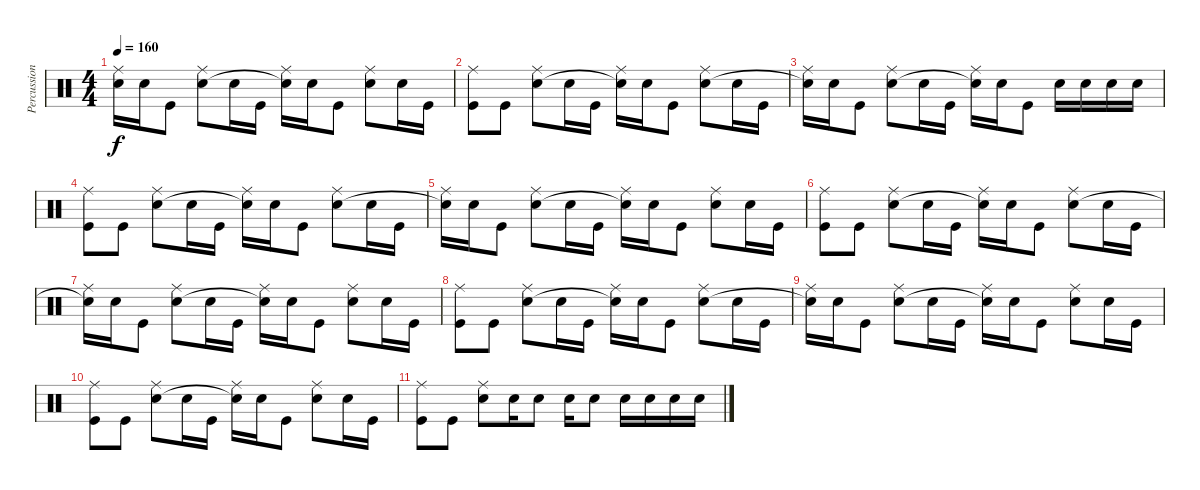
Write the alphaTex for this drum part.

\track ("Percussion" "Percussion") {instrument percussion}
\staff {score}
\articulation defaults
\ts (4 4)
\tempo 160
\clef neutral
\ks c
("Ride (middle)" "Snare (hit)"{t}).16{dy f} "Snare (hit) 2".16 "Kick (hit)".8 ("Ride (middle)" "Snare (hit) 2").8 "Snare (hit) 2".16 "Kick (hit)".16 ("Ride (middle)" "Snare (hit)"{t}).16 "Snare (hit) 2".16 "Kick (hit)".8 ("Ride (middle)" "Snare (hit) 2").8 "Snare (hit) 2".16 "Kick (hit)".16 |
("Ride (middle)" "Kick (hit)").8 "Kick (hit)".8 ("Ride (middle)" "Snare (hit) 2").8 "Snare (hit) 2".16 "Kick (hit)".16 ("Ride (middle)" "Snare (hit)"{t}).16 "Snare (hit) 2".16 "Kick (hit)".8 ("Ride (middle)" "Snare (hit) 2").8 "Snare (hit) 2".16 "Kick (hit)".16 |
("Ride (middle)" "Snare (hit)"{t}).16 "Snare (hit) 2".16 "Kick (hit)".8 ("Ride (middle)" "Snare (hit) 2").8 "Snare (hit) 2".16 "Kick (hit)".16 ("Ride (middle)" "Snare (hit)"{t}).16 "Snare (hit) 2".16 "Kick (hit)".8 "Snare (hit) 2".16 "Snare (hit) 2".16 "Snare (hit) 2".16 "Snare (hit) 2".16 |
("Ride (middle)" "Kick (hit)").8 "Kick (hit)".8 ("Ride (middle)" "Snare (hit) 2").8 "Snare (hit) 2".16 "Kick (hit)".16 ("Ride (middle)" "Snare (hit)"{t}).16 "Snare (hit) 2".16 "Kick (hit)".8 ("Ride (middle)" "Snare (hit) 2").8 "Snare (hit) 2".16 "Kick (hit)".16 |
("Ride (middle)" "Snare (hit)"{t}).16 "Snare (hit) 2".16 "Kick (hit)".8 ("Ride (middle)" "Snare (hit) 2").8 "Snare (hit) 2".16 "Kick (hit)".16 ("Ride (middle)" "Snare (hit)"{t}).16 "Snare (hit) 2".16 "Kick (hit)".8 ("Ride (middle)" "Snare (hit) 2").8 "Snare (hit) 2".16 "Kick (hit)".16 |
("Ride (middle)" "Kick (hit)").8 "Kick (hit)".8 ("Ride (middle)" "Snare (hit) 2").8 "Snare (hit) 2".16 "Kick (hit)".16 ("Ride (middle)" "Snare (hit)"{t}).16 "Snare (hit) 2".16 "Kick (hit)".8 ("Ride (middle)" "Snare (hit) 2").8 "Snare (hit) 2".16 "Kick (hit)".16 |
("Ride (middle)" "Snare (hit)"{t}).16 "Snare (hit) 2".16 "Kick (hit)".8 ("Ride (middle)" "Snare (hit) 2").8 "Snare (hit) 2".16 "Kick (hit)".16 ("Ride (middle)" "Snare (hit)"{t}).16 "Snare (hit) 2".16 "Kick (hit)".8 ("Ride (middle)" "Snare (hit) 2").8 "Snare (hit) 2".16 "Kick (hit)".16 |
("Ride (middle)" "Kick (hit)").8{volume 4} "Kick (hit)".8 ("Ride (middle)" "Snare (hit) 2").8 "Snare (hit) 2".16 "Kick (hit)".16 ("Ride (middle)" "Snare (hit)"{t}).16 "Snare (hit) 2".16 "Kick (hit)".8 ("Ride (middle)" "Snare (hit) 2").8 "Snare (hit) 2".16 "Kick (hit)".16 |
("Ride (middle)" "Snare (hit)"{t}).16 "Snare (hit) 2".16 "Kick (hit)".8 ("Ride (middle)" "Snare (hit) 2").8 "Snare (hit) 2".16 "Kick (hit)".16 ("Ride (middle)" "Snare (hit)"{t}).16 "Snare (hit) 2".16 "Kick (hit)".8 ("Ride (middle)" "Snare (hit) 2").8 "Snare (hit) 2".16 "Kick (hit)".16 |
("Ride (middle)" "Kick (hit)").8 "Kick (hit)".8 ("Ride (middle)" "Snare (hit) 2").8 "Snare (hit) 2".16 "Kick (hit)".16 ("Ride (middle)" "Snare (hit)"{t}).16 "Snare (hit) 2".16 "Kick (hit)".8 ("Ride (middle)" "Snare (hit) 2").8 "Snare (hit) 2".16 "Kick (hit)".16 |
("Ride (middle)" "Kick (hit)").8 "Kick (hit)".8 ("Ride (middle)" "Snare (hit) 2").8 "Snare (hit) 2".16 "Snare (hit) 2".8 "Snare (hit) 2".16 "Snare (hit) 2".8 "Snare (hit) 2".16 "Snare (hit) 2".16 "Snare (hit) 2".16 "Snare (hit) 2".16
